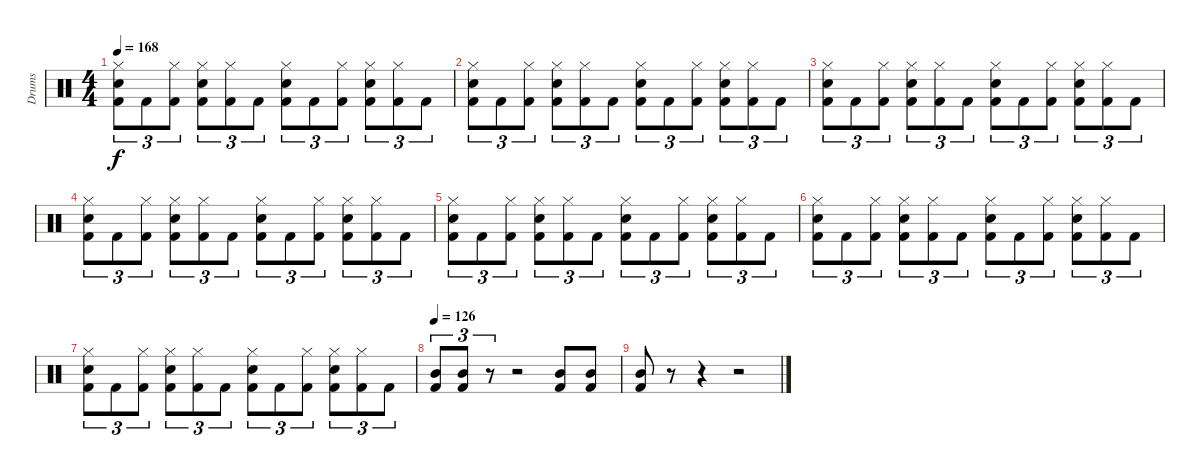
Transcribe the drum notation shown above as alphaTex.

\track ("Drums" "Drums") {instrument percussion}
\staff {score}
\articulation defaults
\ts (4 4)
\tempo 168
\clef neutral
\ks c
("Hi-Hat (closed)" "Electric Snare (hit)" "Kick (hit) 2").8{tu (3 2) dy f} "Kick (hit) 2".8{tu (3 2)} ("Hi-Hat (closed)" "Kick (hit) 2").8{tu (3 2)} ("Hi-Hat (closed)" "Electric Snare (hit)" "Kick (hit) 2").8{tu (3 2)} ("Hi-Hat (closed)" "Kick (hit) 2").8{tu (3 2)} "Kick (hit) 2".8{tu (3 2)} ("Hi-Hat (closed)" "Electric Snare (hit)" "Kick (hit) 2").8{tu (3 2)} "Kick (hit) 2".8{tu (3 2)} ("Hi-Hat (closed)" "Kick (hit) 2").8{tu (3 2)} ("Hi-Hat (closed)" "Electric Snare (hit)" "Kick (hit) 2").8{tu (3 2)} ("Hi-Hat (closed)" "Kick (hit) 2").8{tu (3 2)} "Kick (hit) 2".8{tu (3 2)} |
("Hi-Hat (closed)" "Electric Snare (hit)" "Kick (hit) 2").8{tu (3 2)} "Kick (hit) 2".8{tu (3 2)} ("Hi-Hat (closed)" "Kick (hit) 2").8{tu (3 2)} ("Hi-Hat (closed)" "Electric Snare (hit)" "Kick (hit) 2").8{tu (3 2)} ("Hi-Hat (closed)" "Kick (hit) 2").8{tu (3 2)} "Kick (hit) 2".8{tu (3 2)} ("Hi-Hat (closed)" "Electric Snare (hit)" "Kick (hit) 2").8{tu (3 2)} "Kick (hit) 2".8{tu (3 2)} ("Hi-Hat (closed)" "Kick (hit) 2").8{tu (3 2)} ("Hi-Hat (closed)" "Electric Snare (hit)" "Kick (hit) 2").8{tu (3 2)} ("Hi-Hat (closed)" "Kick (hit) 2").8{tu (3 2)} "Kick (hit) 2".8{tu (3 2)} |
("Hi-Hat (closed)" "Electric Snare (hit)" "Kick (hit) 2").8{tu (3 2)} "Kick (hit) 2".8{tu (3 2)} ("Hi-Hat (closed)" "Kick (hit) 2").8{tu (3 2)} ("Hi-Hat (closed)" "Electric Snare (hit)" "Kick (hit) 2").8{tu (3 2)} ("Hi-Hat (closed)" "Kick (hit) 2").8{tu (3 2)} "Kick (hit) 2".8{tu (3 2)} ("Hi-Hat (closed)" "Electric Snare (hit)" "Kick (hit) 2").8{tu (3 2)} "Kick (hit) 2".8{tu (3 2)} ("Hi-Hat (closed)" "Kick (hit) 2").8{tu (3 2)} ("Hi-Hat (closed)" "Electric Snare (hit)" "Kick (hit) 2").8{tu (3 2)} ("Hi-Hat (closed)" "Kick (hit) 2").8{tu (3 2)} "Kick (hit) 2".8{tu (3 2)} |
("Hi-Hat (closed)" "Electric Snare (hit)" "Kick (hit) 2").8{tu (3 2)} "Kick (hit) 2".8{tu (3 2)} ("Hi-Hat (closed)" "Kick (hit) 2").8{tu (3 2)} ("Hi-Hat (closed)" "Electric Snare (hit)" "Kick (hit) 2").8{tu (3 2)} ("Hi-Hat (closed)" "Kick (hit) 2").8{tu (3 2)} "Kick (hit) 2".8{tu (3 2)} ("Hi-Hat (closed)" "Electric Snare (hit)" "Kick (hit) 2").8{tu (3 2)} "Kick (hit) 2".8{tu (3 2)} ("Hi-Hat (closed)" "Kick (hit) 2").8{tu (3 2)} ("Hi-Hat (closed)" "Electric Snare (hit)" "Kick (hit) 2").8{tu (3 2)} ("Hi-Hat (closed)" "Kick (hit) 2").8{tu (3 2)} "Kick (hit) 2".8{tu (3 2)} |
("Hi-Hat (closed)" "Electric Snare (hit)" "Kick (hit) 2").8{tu (3 2)} "Kick (hit) 2".8{tu (3 2)} ("Hi-Hat (closed)" "Kick (hit) 2").8{tu (3 2)} ("Hi-Hat (closed)" "Electric Snare (hit)" "Kick (hit) 2").8{tu (3 2)} ("Hi-Hat (closed)" "Kick (hit) 2").8{tu (3 2)} "Kick (hit) 2".8{tu (3 2)} ("Hi-Hat (closed)" "Electric Snare (hit)" "Kick (hit) 2").8{tu (3 2)} "Kick (hit) 2".8{tu (3 2)} ("Hi-Hat (closed)" "Kick (hit) 2").8{tu (3 2)} ("Hi-Hat (closed)" "Electric Snare (hit)" "Kick (hit) 2").8{tu (3 2)} ("Hi-Hat (closed)" "Kick (hit) 2").8{tu (3 2)} "Kick (hit) 2".8{tu (3 2)} |
("Hi-Hat (closed)" "Electric Snare (hit)" "Kick (hit) 2").8{tu (3 2)} "Kick (hit) 2".8{tu (3 2)} ("Hi-Hat (closed)" "Kick (hit) 2").8{tu (3 2)} ("Hi-Hat (closed)" "Electric Snare (hit)" "Kick (hit) 2").8{tu (3 2)} ("Hi-Hat (closed)" "Kick (hit) 2").8{tu (3 2)} "Kick (hit) 2".8{tu (3 2)} ("Hi-Hat (closed)" "Electric Snare (hit)" "Kick (hit) 2").8{tu (3 2)} "Kick (hit) 2".8{tu (3 2)} ("Hi-Hat (closed)" "Kick (hit) 2").8{tu (3 2)} ("Hi-Hat (closed)" "Electric Snare (hit)" "Kick (hit) 2").8{tu (3 2)} ("Hi-Hat (closed)" "Kick (hit) 2").8{tu (3 2)} "Kick (hit) 2".8{tu (3 2)} |
("Hi-Hat (closed)" "Electric Snare (hit)" "Kick (hit) 2").8{tu (3 2)} "Kick (hit) 2".8{tu (3 2)} ("Hi-Hat (closed)" "Kick (hit) 2").8{tu (3 2)} ("Hi-Hat (closed)" "Electric Snare (hit)" "Kick (hit) 2").8{tu (3 2)} ("Hi-Hat (closed)" "Kick (hit) 2").8{tu (3 2)} "Kick (hit) 2".8{tu (3 2)} ("Hi-Hat (closed)" "Electric Snare (hit)" "Kick (hit) 2").8{tu (3 2)} "Kick (hit) 2".8{tu (3 2)} ("Hi-Hat (closed)" "Kick (hit) 2").8{tu (3 2)} ("Hi-Hat (closed)" "Electric Snare (hit)" "Kick (hit) 2").8{tu (3 2)} ("Hi-Hat (closed)" "Kick (hit) 2").8{tu (3 2)} "Kick (hit) 2".8{tu (3 2)} |
\tempo 126
("Mid Tom (hit)" "Kick (hit) 2").8{tu (3 2)} ("Mid Tom (hit)" "Kick (hit) 2").8{tu (3 2)} r.8{tu (3 2)} r.2 ("Mid Tom (hit)" "Kick (hit) 2").8 ("Mid Tom (hit)" "Kick (hit) 2").8 |
("Mid Tom (hit)" "Kick (hit) 2").8 r.8 r.4 r.2
